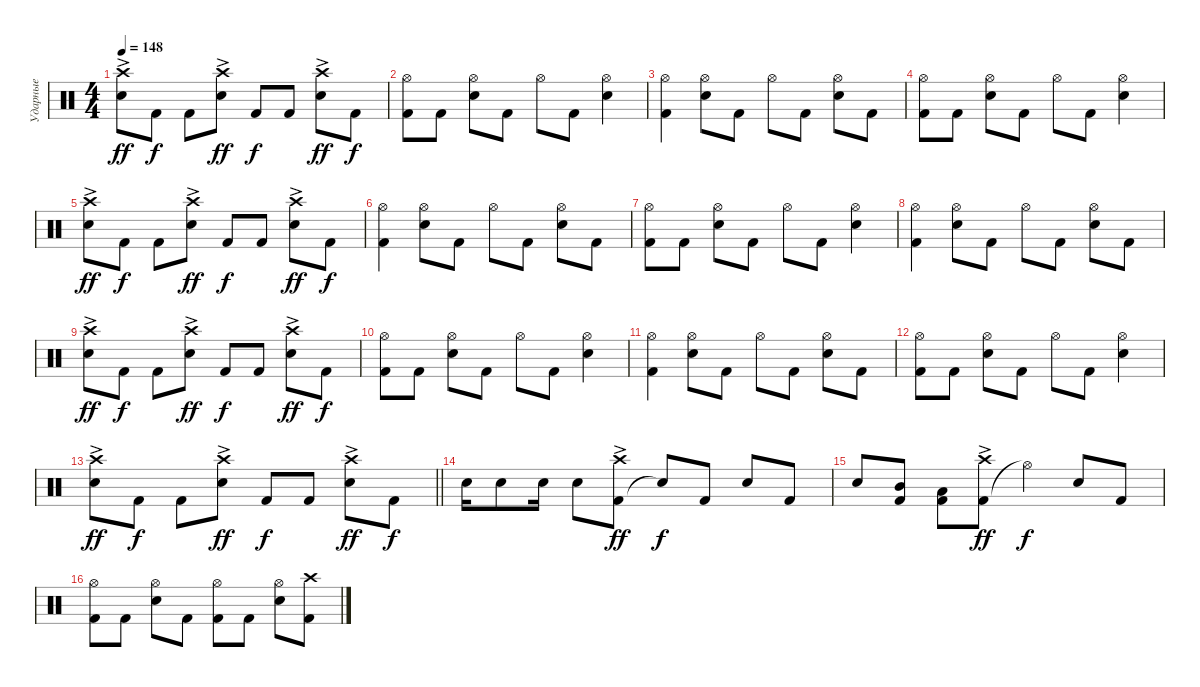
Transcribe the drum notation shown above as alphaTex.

\track ("Ударные" "Ударные") {instrument percussion}
\staff {score}
\articulation defaults
\ts (4 4)
\tempo 148
\clef neutral
\ks c
("Snare (hit) 2" "Crash high (hit)"{ac}).8{dy ff} "Kick (hit) 2".8{dy f} "Kick (hit) 2".8 ("Snare (hit) 2" "Crash high (hit)"{ac}).8{dy ff} "Kick (hit) 2".8{dy f} "Kick (hit) 2".8 ("Snare (hit) 2" "Crash high (hit)"{ac}).8{dy ff} "Kick (hit) 2".8{dy f} |
("Kick (hit) 2" "Hi-Hat (open)").8 "Kick (hit) 2".8 ("Snare (hit) 2" "Hi-Hat (open)").8 "Kick (hit) 2".8 "Hi-Hat (open)".8 "Kick (hit) 2".8 ("Snare (hit) 2" "Hi-Hat (open)").4 |
("Kick (hit) 2" "Hi-Hat (open)").4 ("Snare (hit) 2" "Hi-Hat (open)").8 "Kick (hit) 2".8 "Hi-Hat (open)".8 "Kick (hit) 2".8 ("Snare (hit) 2" "Hi-Hat (open)").8 "Kick (hit) 2".8 |
("Kick (hit) 2" "Hi-Hat (open)").8 "Kick (hit) 2".8 ("Snare (hit) 2" "Hi-Hat (open)").8 "Kick (hit) 2".8 "Hi-Hat (open)".8 "Kick (hit) 2".8 ("Snare (hit) 2" "Hi-Hat (open)").4 |
("Snare (hit) 2" "Crash high (hit)"{ac}).8{dy ff} "Kick (hit) 2".8{dy f} "Kick (hit) 2".8 ("Snare (hit) 2" "Crash high (hit)"{ac}).8{dy ff} "Kick (hit) 2".8{dy f} "Kick (hit) 2".8 ("Snare (hit) 2" "Crash high (hit)"{ac}).8{dy ff} "Kick (hit) 2".8{dy f} |
("Kick (hit) 2" "Hi-Hat (open)").4 ("Snare (hit) 2" "Hi-Hat (open)").8 "Kick (hit) 2".8 "Hi-Hat (open)".8 "Kick (hit) 2".8 ("Snare (hit) 2" "Hi-Hat (open)").8 "Kick (hit) 2".8 |
("Kick (hit) 2" "Hi-Hat (open)").8 "Kick (hit) 2".8 ("Snare (hit) 2" "Hi-Hat (open)").8 "Kick (hit) 2".8 "Hi-Hat (open)".8 "Kick (hit) 2".8 ("Snare (hit) 2" "Hi-Hat (open)").4 |
("Kick (hit) 2" "Hi-Hat (open)").4 ("Snare (hit) 2" "Hi-Hat (open)").8 "Kick (hit) 2".8 "Hi-Hat (open)".8 "Kick (hit) 2".8 ("Snare (hit) 2" "Hi-Hat (open)").8 "Kick (hit) 2".8 |
("Snare (hit) 2" "Crash high (hit)"{ac}).8{dy ff} "Kick (hit) 2".8{dy f} "Kick (hit) 2".8 ("Snare (hit) 2" "Crash high (hit)"{ac}).8{dy ff} "Kick (hit) 2".8{dy f} "Kick (hit) 2".8 ("Snare (hit) 2" "Crash high (hit)"{ac}).8{dy ff} "Kick (hit) 2".8{dy f} |
("Kick (hit) 2" "Hi-Hat (open)").8 "Kick (hit) 2".8 ("Snare (hit) 2" "Hi-Hat (open)").8 "Kick (hit) 2".8 "Hi-Hat (open)".8 "Kick (hit) 2".8 ("Snare (hit) 2" "Hi-Hat (open)").4 |
("Kick (hit) 2" "Hi-Hat (open)").4 ("Snare (hit) 2" "Hi-Hat (open)").8 "Kick (hit) 2".8 "Hi-Hat (open)".8 "Kick (hit) 2".8 ("Snare (hit) 2" "Hi-Hat (open)").8 "Kick (hit) 2".8 |
("Kick (hit) 2" "Hi-Hat (open)").8 "Kick (hit) 2".8 ("Snare (hit) 2" "Hi-Hat (open)").8 "Kick (hit) 2".8 "Hi-Hat (open)".8 "Kick (hit) 2".8 ("Snare (hit) 2" "Hi-Hat (open)").4 |
\barLineRight lightlight
("Snare (hit) 2" "Crash high (hit)"{ac}).8{dy ff} "Kick (hit) 2".8{dy f} "Kick (hit) 2".8 ("Snare (hit) 2" "Crash high (hit)"{ac}).8{dy ff} "Kick (hit) 2".8{dy f} "Kick (hit) 2".8 ("Snare (hit) 2" "Crash high (hit)"{ac}).8{dy ff} "Kick (hit) 2".8{dy f} |
"Snare (hit) 2".16 "Electric Snare (hit)".8 "Snare (hit) 2".16 "Electric Snare (hit)".8 ("Kick (hit) 2" "Crash high (hit)"{ac}).8{dy ff} "Snare (hit)"{t}.8{dy f} "Kick (hit) 2".8 "Snare (hit) 2".8 "Kick (hit) 2".8 |
"Snare (hit) 2".8 ("Kick (hit) 2" "Mid Tom (hit)").8 ("Kick (hit) 2" "Low Tom (hit)").8 ("Kick (hit) 2" "Crash high (hit)"{ac}).8{dy ff} "Hi-Hat (open)"{t}.4{dy f} "Snare (hit) 2".8 "Kick (hit) 2".8 |
("Kick (hit) 2" "Hi-Hat (open)").8 "Kick (hit) 2".8 ("Snare (hit) 2" "Hi-Hat (open)").8 "Kick (hit) 2".8 ("Kick (hit) 2" "Hi-Hat (open)").8 "Kick (hit) 2".8 ("Snare (hit) 2" "Hi-Hat (open)").8 ("Kick (hit) 2" "Crash high (hit)").8
